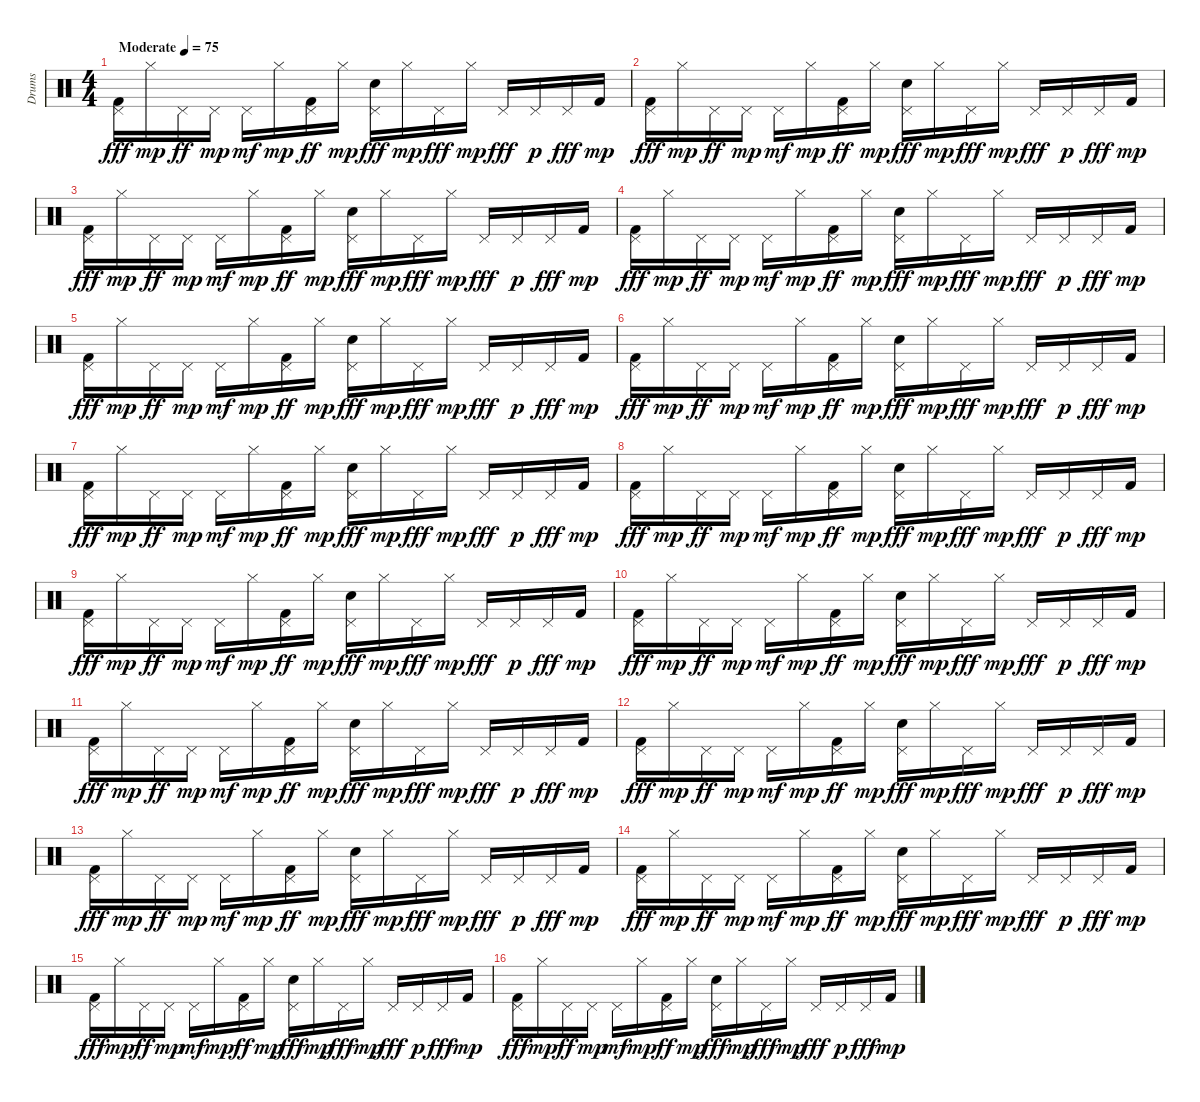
\track ("Drums" "Drums") {instrument percussion}
\staff {score}
\articulation defaults
\ts (4 4)
\tempo (75 "Moderate")
\clef neutral
\ks c
("Kick (hit) 2" "Pedal Hi-Hat (hit)").16{dy fff} "Hi-Hat (closed)".16{dy mp} "Pedal Hi-Hat (hit)".16{dy ff} "Pedal Hi-Hat (hit)".16{dy mp} "Pedal Hi-Hat (hit)".16{dy mf} "Hi-Hat (closed)".16{dy mp} ("Kick (hit) 2" "Pedal Hi-Hat (hit)").16{dy ff} "Hi-Hat (closed)".16{dy mp} ("Snare (hit) 2" "Pedal Hi-Hat (hit)").16{dy fff} "Hi-Hat (closed)".16{dy mp} "Pedal Hi-Hat (hit)".16{dy fff} "Hi-Hat (closed)".16{dy mp} "Pedal Hi-Hat (hit)".16{dy fff} "Pedal Hi-Hat (hit)".16{dy p} "Pedal Hi-Hat (hit)".16{dy fff} "Kick (hit) 2".16{dy mp} |
("Kick (hit) 2" "Pedal Hi-Hat (hit)").16{dy fff} "Hi-Hat (closed)".16{dy mp} "Pedal Hi-Hat (hit)".16{dy ff} "Pedal Hi-Hat (hit)".16{dy mp} "Pedal Hi-Hat (hit)".16{dy mf} "Hi-Hat (closed)".16{dy mp} ("Kick (hit) 2" "Pedal Hi-Hat (hit)").16{dy ff} "Hi-Hat (closed)".16{dy mp} ("Snare (hit) 2" "Pedal Hi-Hat (hit)").16{dy fff} "Hi-Hat (closed)".16{dy mp} "Pedal Hi-Hat (hit)".16{dy fff} "Hi-Hat (closed)".16{dy mp} "Pedal Hi-Hat (hit)".16{dy fff} "Pedal Hi-Hat (hit)".16{dy p} "Pedal Hi-Hat (hit)".16{dy fff} "Kick (hit) 2".16{dy mp} |
("Kick (hit) 2" "Pedal Hi-Hat (hit)").16{dy fff} "Hi-Hat (closed)".16{dy mp} "Pedal Hi-Hat (hit)".16{dy ff} "Pedal Hi-Hat (hit)".16{dy mp} "Pedal Hi-Hat (hit)".16{dy mf} "Hi-Hat (closed)".16{dy mp} ("Kick (hit) 2" "Pedal Hi-Hat (hit)").16{dy ff} "Hi-Hat (closed)".16{dy mp} ("Snare (hit) 2" "Pedal Hi-Hat (hit)").16{dy fff} "Hi-Hat (closed)".16{dy mp} "Pedal Hi-Hat (hit)".16{dy fff} "Hi-Hat (closed)".16{dy mp} "Pedal Hi-Hat (hit)".16{dy fff} "Pedal Hi-Hat (hit)".16{dy p} "Pedal Hi-Hat (hit)".16{dy fff} "Kick (hit) 2".16{dy mp} |
("Kick (hit) 2" "Pedal Hi-Hat (hit)").16{dy fff} "Hi-Hat (closed)".16{dy mp} "Pedal Hi-Hat (hit)".16{dy ff} "Pedal Hi-Hat (hit)".16{dy mp} "Pedal Hi-Hat (hit)".16{dy mf} "Hi-Hat (closed)".16{dy mp} ("Kick (hit) 2" "Pedal Hi-Hat (hit)").16{dy ff} "Hi-Hat (closed)".16{dy mp} ("Snare (hit) 2" "Pedal Hi-Hat (hit)").16{dy fff} "Hi-Hat (closed)".16{dy mp} "Pedal Hi-Hat (hit)".16{dy fff} "Hi-Hat (closed)".16{dy mp} "Pedal Hi-Hat (hit)".16{dy fff} "Pedal Hi-Hat (hit)".16{dy p} "Pedal Hi-Hat (hit)".16{dy fff} "Kick (hit) 2".16{dy mp} |
("Kick (hit) 2" "Pedal Hi-Hat (hit)").16{dy fff} "Hi-Hat (closed)".16{dy mp} "Pedal Hi-Hat (hit)".16{dy ff} "Pedal Hi-Hat (hit)".16{dy mp} "Pedal Hi-Hat (hit)".16{dy mf} "Hi-Hat (closed)".16{dy mp} ("Kick (hit) 2" "Pedal Hi-Hat (hit)").16{dy ff} "Hi-Hat (closed)".16{dy mp} ("Snare (hit) 2" "Pedal Hi-Hat (hit)").16{dy fff} "Hi-Hat (closed)".16{dy mp} "Pedal Hi-Hat (hit)".16{dy fff} "Hi-Hat (closed)".16{dy mp} "Pedal Hi-Hat (hit)".16{dy fff} "Pedal Hi-Hat (hit)".16{dy p} "Pedal Hi-Hat (hit)".16{dy fff} "Kick (hit) 2".16{dy mp} |
("Kick (hit) 2" "Pedal Hi-Hat (hit)").16{dy fff} "Hi-Hat (closed)".16{dy mp} "Pedal Hi-Hat (hit)".16{dy ff} "Pedal Hi-Hat (hit)".16{dy mp} "Pedal Hi-Hat (hit)".16{dy mf} "Hi-Hat (closed)".16{dy mp} ("Kick (hit) 2" "Pedal Hi-Hat (hit)").16{dy ff} "Hi-Hat (closed)".16{dy mp} ("Snare (hit) 2" "Pedal Hi-Hat (hit)").16{dy fff} "Hi-Hat (closed)".16{dy mp} "Pedal Hi-Hat (hit)".16{dy fff} "Hi-Hat (closed)".16{dy mp} "Pedal Hi-Hat (hit)".16{dy fff} "Pedal Hi-Hat (hit)".16{dy p} "Pedal Hi-Hat (hit)".16{dy fff} "Kick (hit) 2".16{dy mp} |
("Kick (hit) 2" "Pedal Hi-Hat (hit)").16{dy fff} "Hi-Hat (closed)".16{dy mp} "Pedal Hi-Hat (hit)".16{dy ff} "Pedal Hi-Hat (hit)".16{dy mp} "Pedal Hi-Hat (hit)".16{dy mf} "Hi-Hat (closed)".16{dy mp} ("Kick (hit) 2" "Pedal Hi-Hat (hit)").16{dy ff} "Hi-Hat (closed)".16{dy mp} ("Snare (hit) 2" "Pedal Hi-Hat (hit)").16{dy fff} "Hi-Hat (closed)".16{dy mp} "Pedal Hi-Hat (hit)".16{dy fff} "Hi-Hat (closed)".16{dy mp} "Pedal Hi-Hat (hit)".16{dy fff} "Pedal Hi-Hat (hit)".16{dy p} "Pedal Hi-Hat (hit)".16{dy fff} "Kick (hit) 2".16{dy mp} |
("Kick (hit) 2" "Pedal Hi-Hat (hit)").16{dy fff} "Hi-Hat (closed)".16{dy mp} "Pedal Hi-Hat (hit)".16{dy ff} "Pedal Hi-Hat (hit)".16{dy mp} "Pedal Hi-Hat (hit)".16{dy mf} "Hi-Hat (closed)".16{dy mp} ("Kick (hit) 2" "Pedal Hi-Hat (hit)").16{dy ff} "Hi-Hat (closed)".16{dy mp} ("Snare (hit) 2" "Pedal Hi-Hat (hit)").16{dy fff} "Hi-Hat (closed)".16{dy mp} "Pedal Hi-Hat (hit)".16{dy fff} "Hi-Hat (closed)".16{dy mp} "Pedal Hi-Hat (hit)".16{dy fff} "Pedal Hi-Hat (hit)".16{dy p} "Pedal Hi-Hat (hit)".16{dy fff} "Kick (hit) 2".16{dy mp} |
("Kick (hit) 2" "Pedal Hi-Hat (hit)").16{dy fff} "Hi-Hat (closed)".16{dy mp} "Pedal Hi-Hat (hit)".16{dy ff} "Pedal Hi-Hat (hit)".16{dy mp} "Pedal Hi-Hat (hit)".16{dy mf} "Hi-Hat (closed)".16{dy mp} ("Kick (hit) 2" "Pedal Hi-Hat (hit)").16{dy ff} "Hi-Hat (closed)".16{dy mp} ("Snare (hit) 2" "Pedal Hi-Hat (hit)").16{dy fff} "Hi-Hat (closed)".16{dy mp} "Pedal Hi-Hat (hit)".16{dy fff} "Hi-Hat (closed)".16{dy mp} "Pedal Hi-Hat (hit)".16{dy fff} "Pedal Hi-Hat (hit)".16{dy p} "Pedal Hi-Hat (hit)".16{dy fff} "Kick (hit) 2".16{dy mp} |
("Kick (hit) 2" "Pedal Hi-Hat (hit)").16{dy fff} "Hi-Hat (closed)".16{dy mp} "Pedal Hi-Hat (hit)".16{dy ff} "Pedal Hi-Hat (hit)".16{dy mp} "Pedal Hi-Hat (hit)".16{dy mf} "Hi-Hat (closed)".16{dy mp} ("Kick (hit) 2" "Pedal Hi-Hat (hit)").16{dy ff} "Hi-Hat (closed)".16{dy mp} ("Snare (hit) 2" "Pedal Hi-Hat (hit)").16{dy fff} "Hi-Hat (closed)".16{dy mp} "Pedal Hi-Hat (hit)".16{dy fff} "Hi-Hat (closed)".16{dy mp} "Pedal Hi-Hat (hit)".16{dy fff} "Pedal Hi-Hat (hit)".16{dy p} "Pedal Hi-Hat (hit)".16{dy fff} "Kick (hit) 2".16{dy mp} |
("Kick (hit) 2" "Pedal Hi-Hat (hit)").16{dy fff} "Hi-Hat (closed)".16{dy mp} "Pedal Hi-Hat (hit)".16{dy ff} "Pedal Hi-Hat (hit)".16{dy mp} "Pedal Hi-Hat (hit)".16{dy mf} "Hi-Hat (closed)".16{dy mp} ("Kick (hit) 2" "Pedal Hi-Hat (hit)").16{dy ff} "Hi-Hat (closed)".16{dy mp} ("Snare (hit) 2" "Pedal Hi-Hat (hit)").16{dy fff} "Hi-Hat (closed)".16{dy mp} "Pedal Hi-Hat (hit)".16{dy fff} "Hi-Hat (closed)".16{dy mp} "Pedal Hi-Hat (hit)".16{dy fff} "Pedal Hi-Hat (hit)".16{dy p} "Pedal Hi-Hat (hit)".16{dy fff} "Kick (hit) 2".16{dy mp} |
("Kick (hit) 2" "Pedal Hi-Hat (hit)").16{dy fff} "Hi-Hat (closed)".16{dy mp} "Pedal Hi-Hat (hit)".16{dy ff} "Pedal Hi-Hat (hit)".16{dy mp} "Pedal Hi-Hat (hit)".16{dy mf} "Hi-Hat (closed)".16{dy mp} ("Kick (hit) 2" "Pedal Hi-Hat (hit)").16{dy ff} "Hi-Hat (closed)".16{dy mp} ("Snare (hit) 2" "Pedal Hi-Hat (hit)").16{dy fff} "Hi-Hat (closed)".16{dy mp} "Pedal Hi-Hat (hit)".16{dy fff} "Hi-Hat (closed)".16{dy mp} "Pedal Hi-Hat (hit)".16{dy fff} "Pedal Hi-Hat (hit)".16{dy p} "Pedal Hi-Hat (hit)".16{dy fff} "Kick (hit) 2".16{dy mp} |
("Kick (hit) 2" "Pedal Hi-Hat (hit)").16{dy fff} "Hi-Hat (closed)".16{dy mp} "Pedal Hi-Hat (hit)".16{dy ff} "Pedal Hi-Hat (hit)".16{dy mp} "Pedal Hi-Hat (hit)".16{dy mf} "Hi-Hat (closed)".16{dy mp} ("Kick (hit) 2" "Pedal Hi-Hat (hit)").16{dy ff} "Hi-Hat (closed)".16{dy mp} ("Snare (hit) 2" "Pedal Hi-Hat (hit)").16{dy fff} "Hi-Hat (closed)".16{dy mp} "Pedal Hi-Hat (hit)".16{dy fff} "Hi-Hat (closed)".16{dy mp} "Pedal Hi-Hat (hit)".16{dy fff} "Pedal Hi-Hat (hit)".16{dy p} "Pedal Hi-Hat (hit)".16{dy fff} "Kick (hit) 2".16{dy mp} |
("Kick (hit) 2" "Pedal Hi-Hat (hit)").16{dy fff} "Hi-Hat (closed)".16{dy mp} "Pedal Hi-Hat (hit)".16{dy ff} "Pedal Hi-Hat (hit)".16{dy mp} "Pedal Hi-Hat (hit)".16{dy mf} "Hi-Hat (closed)".16{dy mp} ("Kick (hit) 2" "Pedal Hi-Hat (hit)").16{dy ff} "Hi-Hat (closed)".16{dy mp} ("Snare (hit) 2" "Pedal Hi-Hat (hit)").16{dy fff} "Hi-Hat (closed)".16{dy mp} "Pedal Hi-Hat (hit)".16{dy fff} "Hi-Hat (closed)".16{dy mp} "Pedal Hi-Hat (hit)".16{dy fff} "Pedal Hi-Hat (hit)".16{dy p} "Pedal Hi-Hat (hit)".16{dy fff} "Kick (hit) 2".16{dy mp} |
("Kick (hit) 2" "Pedal Hi-Hat (hit)").16{dy fff} "Hi-Hat (closed)".16{dy mp} "Pedal Hi-Hat (hit)".16{dy ff} "Pedal Hi-Hat (hit)".16{dy mp} "Pedal Hi-Hat (hit)".16{dy mf} "Hi-Hat (closed)".16{dy mp} ("Kick (hit) 2" "Pedal Hi-Hat (hit)").16{dy ff} "Hi-Hat (closed)".16{dy mp} ("Snare (hit) 2" "Pedal Hi-Hat (hit)").16{dy fff} "Hi-Hat (closed)".16{dy mp} "Pedal Hi-Hat (hit)".16{dy fff} "Hi-Hat (closed)".16{dy mp} "Pedal Hi-Hat (hit)".16{dy fff} "Pedal Hi-Hat (hit)".16{dy p} "Pedal Hi-Hat (hit)".16{dy fff} "Kick (hit) 2".16{dy mp} |
("Kick (hit) 2" "Pedal Hi-Hat (hit)").16{dy fff} "Hi-Hat (closed)".16{dy mp} "Pedal Hi-Hat (hit)".16{dy ff} "Pedal Hi-Hat (hit)".16{dy mp} "Pedal Hi-Hat (hit)".16{dy mf} "Hi-Hat (closed)".16{dy mp} ("Kick (hit) 2" "Pedal Hi-Hat (hit)").16{dy ff} "Hi-Hat (closed)".16{dy mp} ("Snare (hit) 2" "Pedal Hi-Hat (hit)").16{dy fff} "Hi-Hat (closed)".16{dy mp} "Pedal Hi-Hat (hit)".16{dy fff} "Hi-Hat (closed)".16{dy mp} "Pedal Hi-Hat (hit)".16{dy fff} "Pedal Hi-Hat (hit)".16{dy p} "Pedal Hi-Hat (hit)".16{dy fff} "Kick (hit) 2".16{dy mp}
